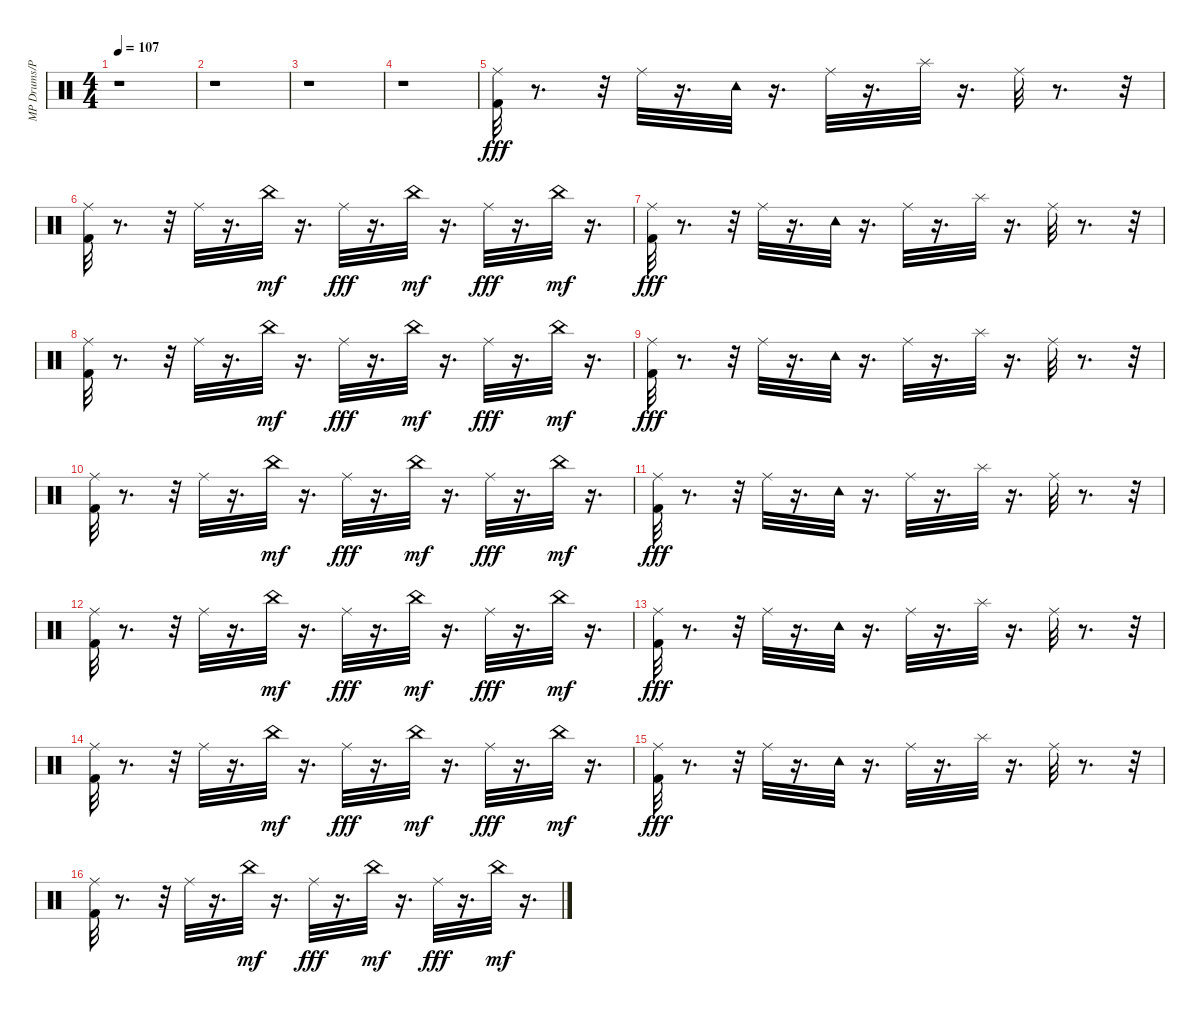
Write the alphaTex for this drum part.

\track ("MP Drums/Percussion" "MP Drums/P") {instrument percussion}
\staff {score}
\articulation defaults
\ts (4 4)
\tempo 107
\clef neutral
\ks c
r.1{dy fff} |
r.1 |
r.1 |
r.1 |
("Ride (middle)" "Kick (hit) 2").32 r.8{d} r.32 "Ride (middle)".32 r.16{d} "Tambourine (hit)".32 r.16{d} "Ride (middle)".32 r.16{d} "Splash (hit)".32 r.16{d} "Ride (middle)".32 r.8{d} r.32 |
("Kick (hit) 2" "Ride (middle)").32 r.8{d} r.32 "Ride (middle)".32 r.16{d} "China (hit)".32{dy mf} r.16{d} "Ride (middle)".32{dy fff} r.16{d} "China (hit)".32{dy mf} r.16{d} "Ride (middle)".32{dy fff} r.16{d} "China (hit)".32{dy mf} r.16{d} |
("Kick (hit) 2" "Ride (middle)").32{dy fff} r.8{d} r.32 "Ride (middle)".32 r.16{d} "Tambourine (hit)".32 r.16{d} "Ride (middle)".32 r.16{d} "Splash (hit)".32 r.16{d} "Ride (middle)".32 r.8{d} r.32 |
("Kick (hit) 2" "Ride (middle)").32 r.8{d} r.32 "Ride (middle)".32 r.16{d} "China (hit)".32{dy mf} r.16{d} "Ride (middle)".32{dy fff} r.16{d} "China (hit)".32{dy mf} r.16{d} "Ride (middle)".32{dy fff} r.16{d} "China (hit)".32{dy mf} r.16{d} |
("Kick (hit) 2" "Ride (middle)").32{dy fff} r.8{d} r.32 "Ride (middle)".32 r.16{d} "Tambourine (hit)".32 r.16{d} "Ride (middle)".32 r.16{d} "Splash (hit)".32 r.16{d} "Ride (middle)".32 r.8{d} r.32 |
("Kick (hit) 2" "Ride (middle)").32 r.8{d} r.32 "Ride (middle)".32 r.16{d} "China (hit)".32{dy mf} r.16{d} "Ride (middle)".32{dy fff} r.16{d} "China (hit)".32{dy mf} r.16{d} "Ride (middle)".32{dy fff} r.16{d} "China (hit)".32{dy mf} r.16{d} |
("Kick (hit) 2" "Ride (middle)").32{dy fff} r.8{d} r.32 "Ride (middle)".32 r.16{d} "Tambourine (hit)".32 r.16{d} "Ride (middle)".32 r.16{d} "Splash (hit)".32 r.16{d} "Ride (middle)".32 r.8{d} r.32 |
("Kick (hit) 2" "Ride (middle)").32 r.8{d} r.32 "Ride (middle)".32 r.16{d} "China (hit)".32{dy mf} r.16{d} "Ride (middle)".32{dy fff} r.16{d} "China (hit)".32{dy mf} r.16{d} "Ride (middle)".32{dy fff} r.16{d} "China (hit)".32{dy mf} r.16{d} |
("Kick (hit) 2" "Ride (middle)").32{dy fff} r.8{d} r.32 "Ride (middle)".32 r.16{d} "Tambourine (hit)".32 r.16{d} "Ride (middle)".32 r.16{d} "Splash (hit)".32 r.16{d} "Ride (middle)".32 r.8{d} r.32 |
("Kick (hit) 2" "Ride (middle)").32 r.8{d} r.32 "Ride (middle)".32 r.16{d} "China (hit)".32{dy mf} r.16{d} "Ride (middle)".32{dy fff} r.16{d} "China (hit)".32{dy mf} r.16{d} "Ride (middle)".32{dy fff} r.16{d} "China (hit)".32{dy mf} r.16{d} |
("Kick (hit) 2" "Ride (middle)").32{dy fff} r.8{d} r.32 "Ride (middle)".32 r.16{d} "Tambourine (hit)".32 r.16{d} "Ride (middle)".32 r.16{d} "Splash (hit)".32 r.16{d} "Ride (middle)".32 r.8{d} r.32 |
("Kick (hit) 2" "Ride (middle)").32 r.8{d} r.32 "Ride (middle)".32 r.16{d} "China (hit)".32{dy mf} r.16{d} "Ride (middle)".32{dy fff} r.16{d} "China (hit)".32{dy mf} r.16{d} "Ride (middle)".32{dy fff} r.16{d} "China (hit)".32{dy mf} r.16{d}
